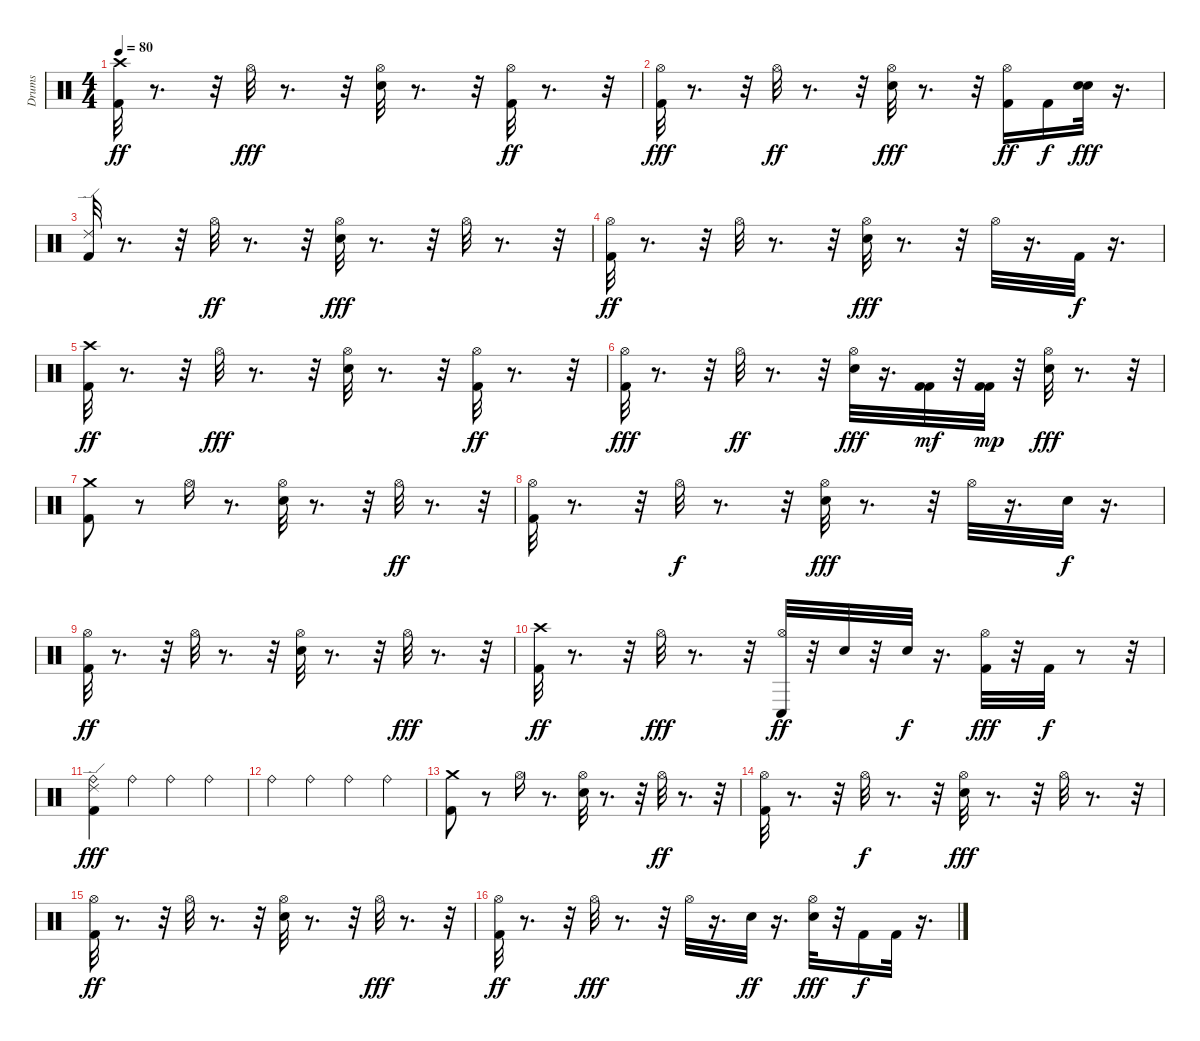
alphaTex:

\track ("Drums" "Drums") {instrument percussion}
\staff {score}
\articulation defaults
\ts (4 4)
\tempo 80
\clef neutral
\ks c
("Crash high (hit)" "Kick (hit) 2").32{dy ff} r.8{d} r.32 "Hi-Hat (open)".32{dy fff} r.8{d} r.32 ("Hi-Hat (open)" "Electric Snare (hit)").32 r.8{d} r.32 ("Hi-Hat (open)" "Kick (hit) 2").32{dy ff} r.8{d} r.32 |
("Kick (hit) 2" "Hi-Hat (open)").32{dy fff} r.8{d} r.32 "Hi-Hat (open)".32{dy ff} r.8{d} r.32 ("Electric Snare (hit)" "Hi-Hat (open)").32{dy fff} r.8{d} r.32 ("Kick (hit) 2" "Hi-Hat (open)").16{dy ff} "Kick (hit) 2".16{dy f} ("Electric Snare (hit)" "Snare (hit) 2").32{dy fff} r.16{d} |
("Kick (hit) 2" "Ride (edge) 2").32 r.8{d} r.32 "Hi-Hat (open)".32{dy ff} r.8{d} r.32 ("Electric Snare (hit)" "Hi-Hat (open)").32{dy fff} r.8{d} r.32 "Hi-Hat (open)".32 r.8{d} r.32 |
("Hi-Hat (open)" "Kick (hit) 2").32{dy ff} r.8{d} r.32 "Hi-Hat (open)".32 r.8{d} r.32 ("Electric Snare (hit)" "Hi-Hat (open)").32{dy fff} r.8{d} r.32 "Hi-Hat (open)".32 r.16{d} "Kick (hit) 2".32{dy f} r.16{d} |
("Crash high (hit)" "Kick (hit) 2").32{dy ff} r.8{d} r.32 "Hi-Hat (open)".32{dy fff} r.8{d} r.32 ("Hi-Hat (open)" "Electric Snare (hit)").32 r.8{d} r.32 ("Hi-Hat (open)" "Kick (hit) 2").32{dy ff} r.8{d} r.32 |
("Kick (hit) 2" "Hi-Hat (open)").32{dy fff} r.8{d} r.32 "Hi-Hat (open)".32{dy ff} r.8{d} r.32 ("Electric Snare (hit)" "Hi-Hat (open)").32{dy fff} r.16{d} ("Kick (hit) 2" "Kick (hit) 2").32{dy mf} r.32 ("Kick (hit) 2" "Kick (hit) 2").32{dy mp} r.32 ("Hi-Hat (open)" "Electric Snare (hit)").32{dy fff} r.8{d} r.32 |
("Kick (hit) 2" "Crash medium (hit)").8 r.8 "Hi-Hat (open)".16 r.8{d} ("Electric Snare (hit)" "Hi-Hat (open)").32 r.8{d} r.32 "Hi-Hat (open)".32{dy ff} r.8{d} r.32 |
("Hi-Hat (open)" "Kick (hit) 2").32 r.8{d} r.32 "Hi-Hat (open)".32{dy f} r.8{d} r.32 ("Electric Snare (hit)" "Hi-Hat (open)").32{dy fff} r.8{d} r.32 "Hi-Hat (open)".32 r.16{d} "Electric Snare (hit)".32{dy f} r.16{d} |
("Hi-Hat (open)" "Kick (hit) 2").32{dy ff} r.8{d} r.32 "Hi-Hat (open)".32 r.8{d} r.32 ("Electric Snare (hit)" "Hi-Hat (open)").32 r.8{d} r.32 "Hi-Hat (open)".32{dy fff} r.8{d} r.32 |
("Crash high (hit)" "Kick (hit) 2").32{dy ff} r.8{d} r.32 "Hi-Hat (open)".32{dy fff} r.8{d} r.32 ("Hi-Hat (open)" "Conga low (hit)").32{dy ff} r.32 "Electric Snare (hit)".32 r.32 "Electric Snare (hit)".32{dy f} r.16{d} ("Kick (hit) 2" "Hi-Hat (open)").32{dy fff} r.32 "Kick (hit) 2".32{dy f} r.8 r.32 |
("Ride (bell)" "Ride (edge) 2" "Kick (hit) 2").4{dy fff} "Ride (bell)".4 "Ride (bell)".4 "Ride (bell)".4 |
"Ride (bell)".4 "Ride (bell)".4 "Ride (bell)".4 "Ride (bell)".4 |
("Kick (hit) 2" "Crash medium (hit)").8 r.8 "Hi-Hat (open)".16 r.8{d} ("Electric Snare (hit)" "Hi-Hat (open)").32 r.8{d} r.32 "Hi-Hat (open)".32{dy ff} r.8{d} r.32 |
("Hi-Hat (open)" "Kick (hit) 2").32 r.8{d} r.32 "Hi-Hat (open)".32{dy f} r.8{d} r.32 ("Electric Snare (hit)" "Hi-Hat (open)").32{dy fff} r.8{d} r.32 "Hi-Hat (open)".32 r.8{d} r.32 |
("Hi-Hat (open)" "Kick (hit) 2").32{dy ff} r.8{d} r.32 "Hi-Hat (open)".32 r.8{d} r.32 ("Electric Snare (hit)" "Hi-Hat (open)").32 r.8{d} r.32 "Hi-Hat (open)".32{dy fff} r.8{d} r.32 |
("Hi-Hat (open)" "Kick (hit) 2").32{dy ff} r.8{d} r.32 "Hi-Hat (open)".32{dy fff} r.8{d} r.32 "Hi-Hat (open)".32 r.16{d} "Electric Snare (hit)".32{dy ff} r.16{d} ("Electric Snare (hit)" "Hi-Hat (open)").32{dy fff} r.32 "Kick (hit) 2".16{dy f} "Kick (hit) 2".32 r.16{d}
